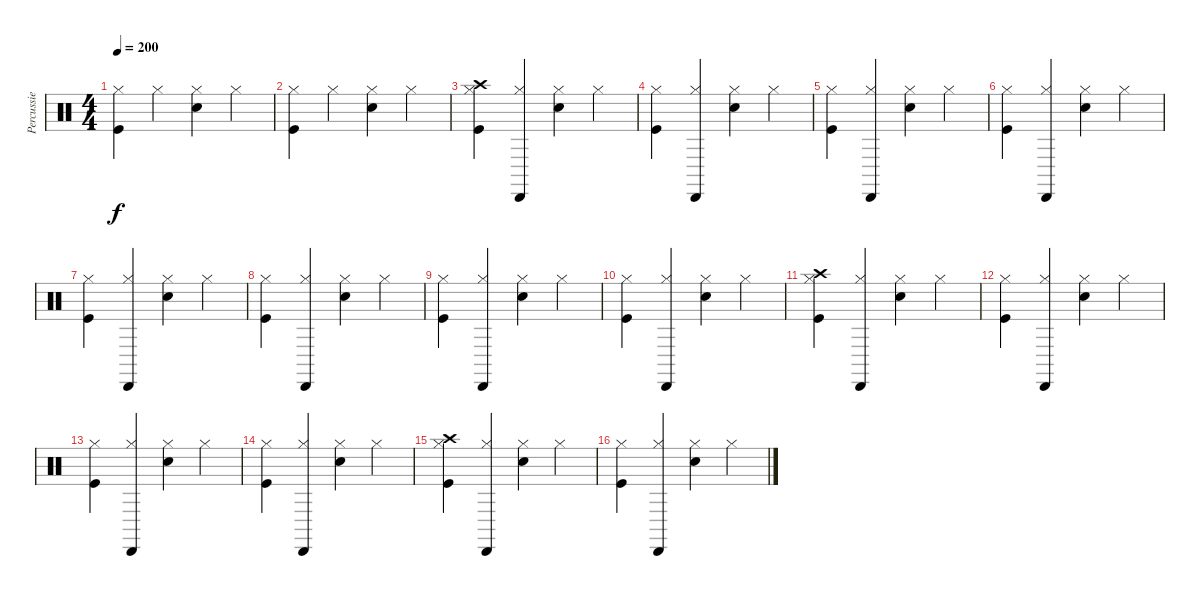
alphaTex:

\track ("Percussie" "Percussie") {instrument percussion}
\staff {score}
\articulation defaults
\ts (4 4)
\tempo 200
\clef neutral
\ks c
("Hi-Hat (closed)" "Kick (hit)").4{dy f} "Hi-Hat (closed)".4 ("Electric Snare (hit)" "Hi-Hat (closed)").4 "Hi-Hat (closed)".4 |
("Hi-Hat (closed)" "Kick (hit)").4 "Hi-Hat (closed)".4 ("Electric Snare (hit)" "Hi-Hat (closed)").4 "Hi-Hat (closed)".4 |
("Crash high (hit)" "Hi-Hat (closed)" "Kick (hit)").4 ("Cabasa (hit)" "Hi-Hat (closed)").4 ("Electric Snare (hit)" "Hi-Hat (closed)").4 "Hi-Hat (closed)".4 |
("Hi-Hat (closed)" "Kick (hit)").4 ("Cabasa (hit)" "Hi-Hat (closed)").4 ("Electric Snare (hit)" "Hi-Hat (closed)").4 "Hi-Hat (closed)".4 |
("Hi-Hat (closed)" "Kick (hit)").4 ("Cabasa (hit)" "Hi-Hat (closed)").4 ("Electric Snare (hit)" "Hi-Hat (closed)").4 "Hi-Hat (closed)".4 |
("Hi-Hat (closed)" "Kick (hit)").4 ("Cabasa (hit)" "Hi-Hat (closed)").4 ("Electric Snare (hit)" "Hi-Hat (closed)").4 "Hi-Hat (closed)".4 |
("Hi-Hat (closed)" "Kick (hit)").4 ("Cabasa (hit)" "Hi-Hat (closed)").4 ("Electric Snare (hit)" "Hi-Hat (closed)").4 "Hi-Hat (closed)".4 |
("Hi-Hat (closed)" "Kick (hit)").4 ("Cabasa (hit)" "Hi-Hat (closed)").4 ("Electric Snare (hit)" "Hi-Hat (closed)").4 "Hi-Hat (closed)".4 |
("Hi-Hat (closed)" "Kick (hit)").4 ("Cabasa (hit)" "Hi-Hat (closed)").4 ("Electric Snare (hit)" "Hi-Hat (closed)").4 "Hi-Hat (closed)".4 |
("Hi-Hat (closed)" "Kick (hit)").4 ("Cabasa (hit)" "Hi-Hat (closed)").4 ("Electric Snare (hit)" "Hi-Hat (closed)").4 "Hi-Hat (closed)".4 |
("Crash high (hit)" "Hi-Hat (closed)" "Kick (hit)").4 ("Cabasa (hit)" "Hi-Hat (closed)").4 ("Electric Snare (hit)" "Hi-Hat (closed)").4 "Hi-Hat (closed)".4 |
("Hi-Hat (closed)" "Kick (hit)").4 ("Cabasa (hit)" "Hi-Hat (closed)").4 ("Electric Snare (hit)" "Hi-Hat (closed)").4 "Hi-Hat (closed)".4 |
("Hi-Hat (closed)" "Kick (hit)").4 ("Cabasa (hit)" "Hi-Hat (closed)").4 ("Electric Snare (hit)" "Hi-Hat (closed)").4 "Hi-Hat (closed)".4 |
("Hi-Hat (closed)" "Kick (hit)").4 ("Cabasa (hit)" "Hi-Hat (closed)").4 ("Electric Snare (hit)" "Hi-Hat (closed)").4 "Hi-Hat (closed)".4 |
("Crash high (hit)" "Hi-Hat (closed)" "Kick (hit)").4 ("Cabasa (hit)" "Hi-Hat (closed)").4 ("Electric Snare (hit)" "Hi-Hat (closed)").4 "Hi-Hat (closed)".4 |
("Hi-Hat (closed)" "Kick (hit)").4 ("Cabasa (hit)" "Hi-Hat (closed)").4 ("Electric Snare (hit)" "Hi-Hat (closed)").4 "Hi-Hat (closed)".4
